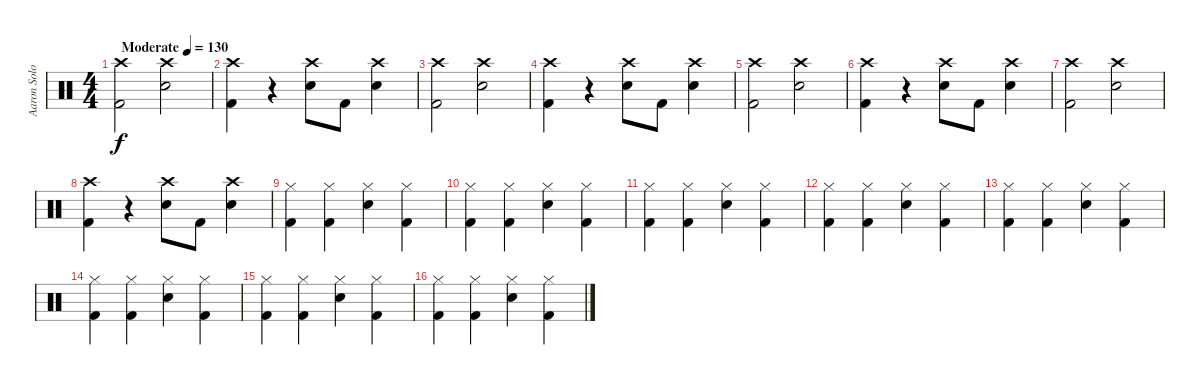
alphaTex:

\track ("Aaron Solowoniuk" "Aaron Solo") {instrument percussion}
\staff {score}
\articulation defaults
\ts (4 4)
\tempo (130 "Moderate")
\clef neutral
\ks c
("Crash high (hit)" "Kick (hit) 2").2{dy f} ("Crash high (hit)" "Electric Snare (hit)").2 |
("Crash high (hit)" "Kick (hit) 2").4 r.4 ("Crash high (hit)" "Electric Snare (hit)").8 "Kick (hit) 2".8 ("Crash high (hit)" "Electric Snare (hit)").4 |
("Crash high (hit)" "Kick (hit) 2").2 ("Crash high (hit)" "Electric Snare (hit)").2 |
("Crash high (hit)" "Kick (hit) 2").4 r.4 ("Crash high (hit)" "Electric Snare (hit)").8 "Kick (hit) 2".8 ("Crash high (hit)" "Electric Snare (hit)").4 |
("Crash high (hit)" "Kick (hit) 2").2 ("Crash high (hit)" "Electric Snare (hit)").2 |
("Crash high (hit)" "Kick (hit) 2").4 r.4 ("Crash high (hit)" "Electric Snare (hit)").8 "Kick (hit) 2".8 ("Crash high (hit)" "Electric Snare (hit)").4 |
("Crash high (hit)" "Kick (hit) 2").2 ("Crash high (hit)" "Electric Snare (hit)").2 |
("Crash high (hit)" "Kick (hit) 2").4 r.4 ("Crash high (hit)" "Electric Snare (hit)").8 "Kick (hit) 2".8 ("Crash high (hit)" "Electric Snare (hit)").4 |
("Hi-Hat (closed)" "Kick (hit) 2").4 ("Hi-Hat (closed)" "Kick (hit) 2").4 ("Hi-Hat (closed)" "Electric Snare (hit)").4 ("Hi-Hat (closed)" "Kick (hit) 2").4 |
("Hi-Hat (closed)" "Kick (hit) 2").4 ("Hi-Hat (closed)" "Kick (hit) 2").4 ("Hi-Hat (closed)" "Electric Snare (hit)").4 ("Hi-Hat (closed)" "Kick (hit) 2").4 |
("Hi-Hat (closed)" "Kick (hit) 2").4 ("Hi-Hat (closed)" "Kick (hit) 2").4 ("Hi-Hat (closed)" "Electric Snare (hit)").4 ("Hi-Hat (closed)" "Kick (hit) 2").4 |
("Hi-Hat (closed)" "Kick (hit) 2").4 ("Hi-Hat (closed)" "Kick (hit) 2").4 ("Hi-Hat (closed)" "Electric Snare (hit)").4 ("Hi-Hat (closed)" "Kick (hit) 2").4 |
("Hi-Hat (closed)" "Kick (hit) 2").4 ("Hi-Hat (closed)" "Kick (hit) 2").4 ("Hi-Hat (closed)" "Electric Snare (hit)").4 ("Hi-Hat (closed)" "Kick (hit) 2").4 |
("Hi-Hat (closed)" "Kick (hit) 2").4 ("Hi-Hat (closed)" "Kick (hit) 2").4 ("Hi-Hat (closed)" "Electric Snare (hit)").4 ("Hi-Hat (closed)" "Kick (hit) 2").4 |
("Hi-Hat (closed)" "Kick (hit) 2").4 ("Hi-Hat (closed)" "Kick (hit) 2").4 ("Hi-Hat (closed)" "Electric Snare (hit)").4 ("Hi-Hat (closed)" "Kick (hit) 2").4 |
("Hi-Hat (closed)" "Kick (hit) 2").4 ("Hi-Hat (closed)" "Kick (hit) 2").4 ("Hi-Hat (closed)" "Electric Snare (hit)").4 ("Hi-Hat (closed)" "Kick (hit) 2").4
